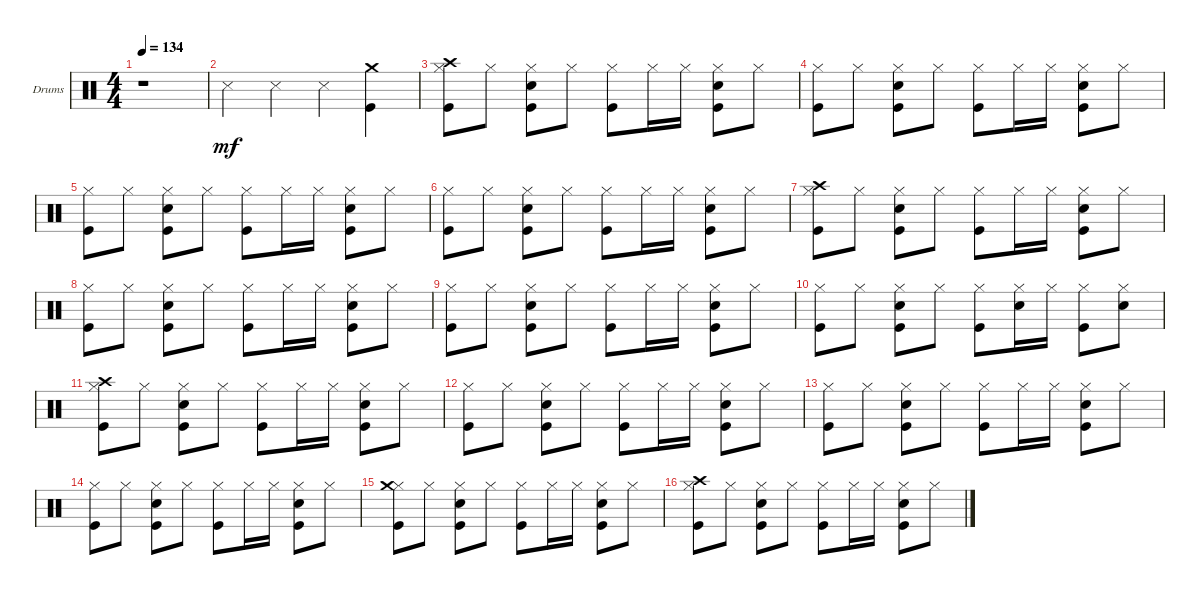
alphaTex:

\bracketExtendMode groupsimilarinstruments
\firstSystemTrackNameOrientation horizontal
\otherSystemsTrackNameOrientation horizontal
\track ("DRUMSET" "Drums") {instrument percussion}
\staff {score}
\articulation defaults
\ts (4 4)
\tempo 134
\tempo (134 0.000520833)
\clef neutral
\ks c
r.1{dy mf} |
"Snare (side stick) 3".4 "Snare (side stick) 3".4 "Snare (side stick) 3".4 ("Kick (hit)" "Crash medium (hit)").4 |
("Kick (hit)" "Hi-Hat (closed)" "Crash high (hit)").8 "Hi-Hat (closed)".8 ("Kick (hit)" "Snare (hit) 2" "Hi-Hat (closed)").8 "Hi-Hat (closed)".8 ("Kick (hit)" "Hi-Hat (closed)").8 "Hi-Hat (closed)".16 "Hi-Hat (closed)".16 ("Kick (hit)" "Snare (hit) 2" "Hi-Hat (closed)").8 "Hi-Hat (closed)".8 |
("Kick (hit)" "Hi-Hat (closed)").8 "Hi-Hat (closed)".8 ("Kick (hit)" "Snare (hit) 2" "Hi-Hat (closed)").8 "Hi-Hat (closed)".8 ("Kick (hit)" "Hi-Hat (closed)").8 "Hi-Hat (closed)".16 "Hi-Hat (closed)".16 ("Kick (hit)" "Snare (hit) 2" "Hi-Hat (closed)").8 "Hi-Hat (closed)".8 |
("Kick (hit)" "Hi-Hat (closed)").8 "Hi-Hat (closed)".8 ("Kick (hit)" "Snare (hit) 2" "Hi-Hat (closed)").8 "Hi-Hat (closed)".8 ("Kick (hit)" "Hi-Hat (closed)").8 "Hi-Hat (closed)".16 "Hi-Hat (closed)".16 ("Kick (hit)" "Snare (hit) 2" "Hi-Hat (closed)").8 "Hi-Hat (closed)".8 |
("Kick (hit)" "Hi-Hat (closed)").8 "Hi-Hat (closed)".8 ("Kick (hit)" "Snare (hit) 2" "Hi-Hat (closed)").8 "Hi-Hat (closed)".8 ("Kick (hit)" "Hi-Hat (closed)").8 "Hi-Hat (closed)".16 "Hi-Hat (closed)".16 ("Kick (hit)" "Snare (hit) 2" "Hi-Hat (closed)").8 "Hi-Hat (closed)".8 |
("Kick (hit)" "Hi-Hat (closed)" "Crash high (hit)").8 "Hi-Hat (closed)".8 ("Kick (hit)" "Snare (hit) 2" "Hi-Hat (closed)").8 "Hi-Hat (closed)".8 ("Kick (hit)" "Hi-Hat (closed)").8 "Hi-Hat (closed)".16 "Hi-Hat (closed)".16 ("Kick (hit)" "Snare (hit) 2" "Hi-Hat (closed)").8 "Hi-Hat (closed)".8 |
("Kick (hit)" "Hi-Hat (closed)").8 "Hi-Hat (closed)".8 ("Kick (hit)" "Snare (hit) 2" "Hi-Hat (closed)").8 "Hi-Hat (closed)".8 ("Kick (hit)" "Hi-Hat (closed)").8 "Hi-Hat (closed)".16 "Hi-Hat (closed)".16 ("Kick (hit)" "Snare (hit) 2" "Hi-Hat (closed)").8 "Hi-Hat (closed)".8 |
("Kick (hit)" "Hi-Hat (closed)").8 "Hi-Hat (closed)".8 ("Kick (hit)" "Snare (hit) 2" "Hi-Hat (closed)").8 "Hi-Hat (closed)".8 ("Kick (hit)" "Hi-Hat (closed)").8 "Hi-Hat (closed)".16 "Hi-Hat (closed)".16 ("Kick (hit)" "Snare (hit) 2" "Hi-Hat (closed)").8 "Hi-Hat (closed)".8 |
("Kick (hit)" "Hi-Hat (closed)").8 "Hi-Hat (closed)".8 ("Kick (hit)" "Snare (hit) 2" "Hi-Hat (closed)").8 "Hi-Hat (closed)".8 ("Kick (hit)" "Hi-Hat (closed)").8 ("Snare (hit) 2" "Hi-Hat (closed)").16 "Hi-Hat (closed)".16 ("Kick (hit)" "Hi-Hat (closed)").8 ("Snare (hit) 2" "Hi-Hat (closed)").8 |
("Kick (hit)" "Hi-Hat (closed)" "Crash high (hit)").8 "Hi-Hat (closed)".8 ("Kick (hit)" "Snare (hit) 2" "Hi-Hat (closed)").8 "Hi-Hat (closed)".8 ("Kick (hit)" "Hi-Hat (closed)").8 "Hi-Hat (closed)".16 "Hi-Hat (closed)".16 ("Kick (hit)" "Snare (hit) 2" "Hi-Hat (closed)").8 "Hi-Hat (closed)".8 |
("Kick (hit)" "Hi-Hat (closed)").8 "Hi-Hat (closed)".8 ("Kick (hit)" "Snare (hit) 2" "Hi-Hat (closed)").8 "Hi-Hat (closed)".8 ("Kick (hit)" "Hi-Hat (closed)").8 "Hi-Hat (closed)".16 "Hi-Hat (closed)".16 ("Kick (hit)" "Snare (hit) 2" "Hi-Hat (closed)").8 "Hi-Hat (closed)".8 |
("Kick (hit)" "Hi-Hat (closed)").8 "Hi-Hat (closed)".8 ("Kick (hit)" "Snare (hit) 2" "Hi-Hat (closed)").8 "Hi-Hat (closed)".8 ("Kick (hit)" "Hi-Hat (closed)").8 "Hi-Hat (closed)".16 "Hi-Hat (closed)".16 ("Kick (hit)" "Snare (hit) 2" "Hi-Hat (closed)").8 "Hi-Hat (closed)".8 |
("Kick (hit)" "Hi-Hat (closed)").8 "Hi-Hat (closed)".8 ("Kick (hit)" "Snare (hit) 2" "Hi-Hat (closed)").8 "Hi-Hat (closed)".8 ("Kick (hit)" "Hi-Hat (closed)").8 "Hi-Hat (closed)".16 "Hi-Hat (closed)".16 ("Kick (hit)" "Snare (hit) 2" "Hi-Hat (closed)").8 "Hi-Hat (closed)".8 |
("Kick (hit)" "Hi-Hat (closed)" "Crash medium (hit)").8 "Hi-Hat (closed)".8 ("Kick (hit)" "Snare (hit) 2" "Hi-Hat (closed)").8 "Hi-Hat (closed)".8 ("Kick (hit)" "Hi-Hat (closed)").8 "Hi-Hat (closed)".16 "Hi-Hat (closed)".16 ("Kick (hit)" "Snare (hit) 2" "Hi-Hat (closed)").8 "Hi-Hat (closed)".8 |
("Kick (hit)" "Hi-Hat (closed)" "Crash high (hit)").8 "Hi-Hat (closed)".8 ("Kick (hit)" "Snare (hit) 2" "Hi-Hat (closed)").8 "Hi-Hat (closed)".8 ("Kick (hit)" "Hi-Hat (closed)").8 "Hi-Hat (closed)".16 "Hi-Hat (closed)".16 ("Kick (hit)" "Snare (hit) 2" "Hi-Hat (closed)").8 "Hi-Hat (closed)".8
